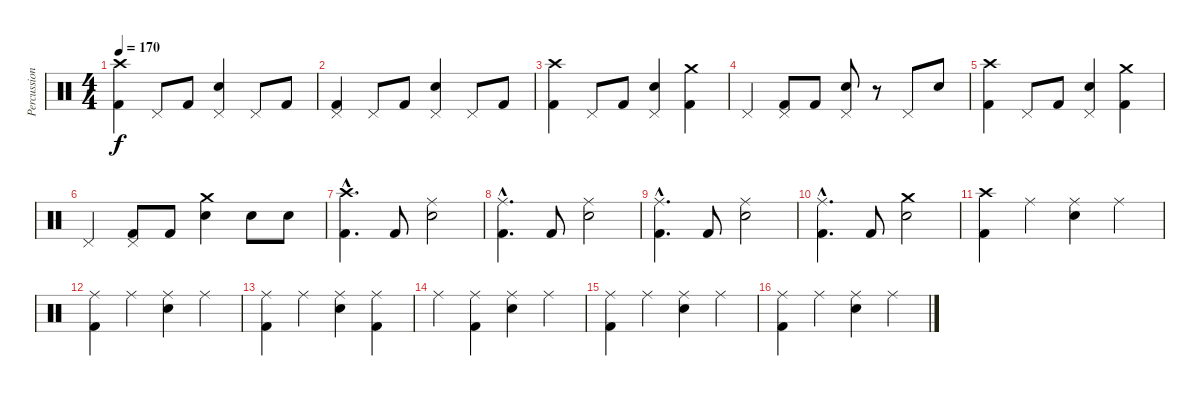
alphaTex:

\track ("Percussion" "Percussion") {instrument percussion}
\staff {score}
\articulation defaults
\ts (4 4)
\tempo 170
\clef neutral
\ks c
("Crash high (hit)" "Kick (hit) 2").4{dy f} "Pedal Hi-Hat (hit)".8 "Kick (hit) 2".8 ("Pedal Hi-Hat (hit)" "Snare (hit) 2").4 "Pedal Hi-Hat (hit)".8 "Kick (hit) 2".8 |
("Pedal Hi-Hat (hit)" "Kick (hit) 2").4 "Pedal Hi-Hat (hit)".8 "Kick (hit) 2".8 ("Pedal Hi-Hat (hit)" "Snare (hit) 2").4 "Pedal Hi-Hat (hit)".8 "Kick (hit) 2".8 |
("Crash high (hit)" "Kick (hit) 2").4 "Pedal Hi-Hat (hit)".8 "Kick (hit) 2".8 ("Pedal Hi-Hat (hit)" "Snare (hit) 2").4 ("Crash medium (hit)" "Kick (hit) 2").4 |
"Pedal Hi-Hat (hit)".4 ("Pedal Hi-Hat (hit)" "Kick (hit) 2").8 "Kick (hit) 2".8 ("Pedal Hi-Hat (hit)" "Snare (hit) 2").8 r.8 "Pedal Hi-Hat (hit)".8 "Snare (hit) 2".8 |
("Crash high (hit)" "Kick (hit) 2").4 "Pedal Hi-Hat (hit)".8 "Kick (hit) 2".8 ("Pedal Hi-Hat (hit)" "Snare (hit) 2").4 ("Crash medium (hit)" "Kick (hit) 2").4 |
"Pedal Hi-Hat (hit)".4 ("Pedal Hi-Hat (hit)" "Kick (hit) 2").8 "Kick (hit) 2".8 ("Crash medium (hit)" "Snare (hit) 2").4 "Snare (hit) 2".8 "Snare (hit) 2".8 |
("Crash high (hit)"{hac} "Kick (hit) 2"{hac}).4{d} "Kick (hit) 2".8 ("Ride (middle)" "Snare (hit) 2").2 |
("Ride (middle)"{hac} "Kick (hit) 2"{hac}).4{d} "Kick (hit) 2".8 ("Ride (middle)" "Snare (hit) 2").2 |
("Ride (middle)"{hac} "Kick (hit) 2"{hac}).4{d} "Kick (hit) 2".8 ("Ride (middle)" "Snare (hit) 2").2 |
("Ride (middle)"{hac} "Kick (hit) 2"{hac}).4{d} "Kick (hit) 2".8 ("Crash medium (hit)" "Snare (hit) 2").2 |
("Crash high (hit)" "Kick (hit) 2").4 "Ride (middle)".4 ("Ride (middle)" "Snare (hit) 2").4 "Ride (middle)".4 |
("Ride (middle)" "Kick (hit) 2").4 "Ride (middle)".4 ("Ride (middle)" "Snare (hit) 2").4 "Ride (middle)".4 |
("Ride (middle)" "Kick (hit) 2").4 "Ride (middle)".4 ("Ride (middle)" "Snare (hit) 2").4 ("Ride (middle)" "Kick (hit) 2").4 |
"Ride (middle)".4 ("Ride (middle)" "Kick (hit) 2").4 ("Ride (middle)" "Snare (hit) 2").4 "Ride (middle)".4 |
("Ride (middle)" "Kick (hit) 2").4 "Ride (middle)".4 ("Ride (middle)" "Snare (hit) 2").4 "Ride (middle)".4 |
("Ride (middle)" "Kick (hit) 2").4 "Ride (middle)".4 ("Ride (middle)" "Snare (hit) 2").4 "Ride (middle)".4
